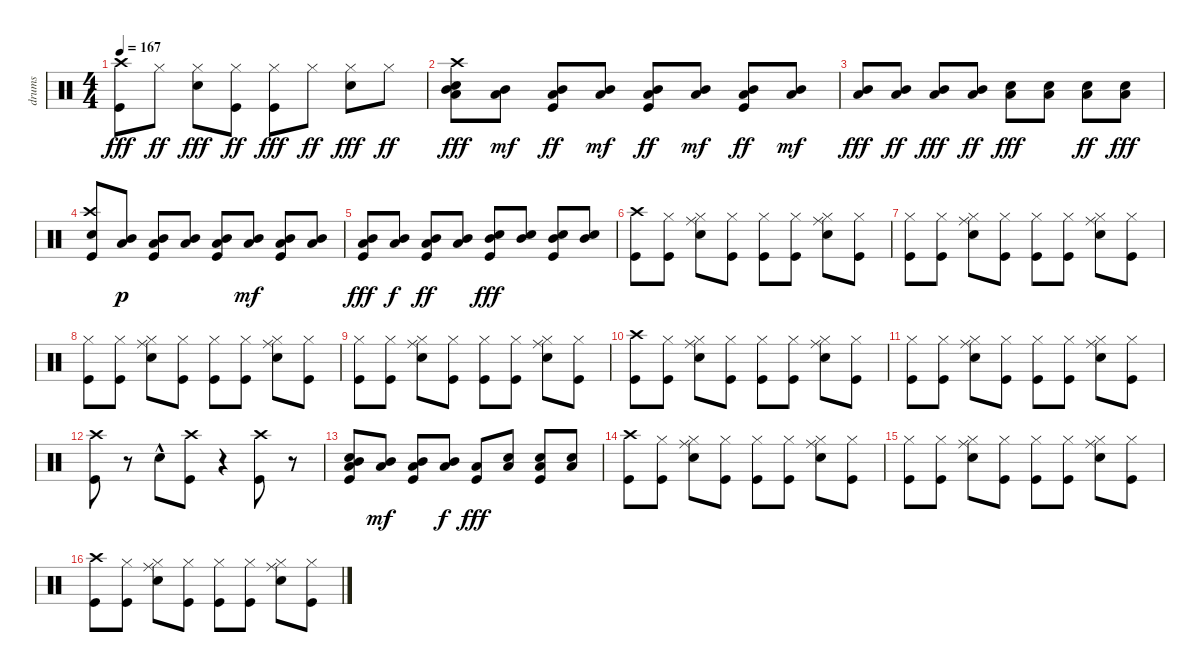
\track ("drums" "drums") {instrument percussion}
\staff {score}
\articulation defaults
\ts (4 4)
\tempo 167
\clef neutral
\ks c
("Kick (hit)" "Crash high (hit)").8{dy fff} "Hi-Hat (closed)".8{dy ff} ("Snare (hit) 2" "Hi-Hat (closed)").8{dy fff} ("Kick (hit)" "Hi-Hat (closed)").8{dy ff} ("Kick (hit)" "Hi-Hat (closed)").8{dy fff} "Hi-Hat (closed)".8{dy ff} ("Snare (hit) 2" "Hi-Hat (closed)").8{dy fff} "Hi-Hat (closed)".8{dy ff} |
("Low Tom (hit)" "Snare (hit) 2" "Mid Tom (hit)" "Crash high (hit)").8{dy fff} ("Low Tom (hit)" "Mid Tom (hit)").8{dy mf} ("Low Tom (hit)" "Kick (hit)" "Mid Tom (hit)").8{dy ff} ("Low Tom (hit)" "Mid Tom (hit)").8{dy mf} ("Low Tom (hit)" "Kick (hit)" "Mid Tom (hit)").8{dy ff} ("Low Tom (hit)" "Mid Tom (hit)").8{dy mf} ("Kick (hit)" "Low Tom (hit)" "Mid Tom (hit)").8{dy ff} ("Mid Tom (hit)" "Low Tom (hit)").8{dy mf} |
("Low Tom (hit)" "Mid Tom (hit)").8{dy fff} ("Low Tom (hit)" "Mid Tom (hit)").8{dy ff} ("Low Tom (hit)" "Mid Tom (hit)").8{dy fff} ("Low Tom (hit)" "Mid Tom (hit)").8{dy ff} ("Snare (hit) 2" "Low Tom (hit)").8{dy fff} ("Snare (hit) 2" "Low Tom (hit)").8 ("Snare (hit) 2" "Low Tom (hit)").8{dy ff} ("Low Tom (hit)" "Snare (hit) 2").8{dy fff} |
("Kick (hit)" "Snare (hit) 2" "Crash high (hit)").8 ("Low Tom (hit)" "Mid Tom (hit)").8{dy p} ("Kick (hit)" "Low Tom (hit)" "Mid Tom (hit)").8 ("Low Tom (hit)" "Mid Tom (hit)").8 ("Kick (hit)" "Low Tom (hit)" "Mid Tom (hit)").8 ("Low Tom (hit)" "Mid Tom (hit)").8{dy mf} ("Kick (hit)" "Low Tom (hit)" "Mid Tom (hit)").8 ("Mid Tom (hit)" "Low Tom (hit)").8 |
("Kick (hit)" "Low Tom (hit)" "Mid Tom (hit)").8{dy fff} ("Low Tom (hit)" "Mid Tom (hit)").8{dy f} ("Kick (hit)" "Low Tom (hit)" "Mid Tom (hit)").8{dy ff} ("Low Tom (hit)" "Mid Tom (hit)").8 ("Kick (hit)" "Snare (hit) 2" "Mid Tom (hit)").8{dy fff} ("Snare (hit) 2" "Mid Tom (hit)").8 ("Kick (hit)" "Snare (hit) 2" "Mid Tom (hit)").8 ("Mid Tom (hit)" "Snare (hit) 2").8 |
("Kick (hit)" "Crash high (hit)").8 ("Kick (hit)" "Hi-Hat (closed)").8 ("Snare (hit) 2" "Hi-Hat (closed)" "Ride (middle)").8 ("Kick (hit)" "Hi-Hat (closed)").8 ("Kick (hit)" "Hi-Hat (closed)").8 ("Kick (hit)" "Hi-Hat (closed)").8 ("Ride (middle)" "Snare (hit) 2" "Hi-Hat (closed)").8 ("Hi-Hat (closed)" "Kick (hit)").8 |
("Kick (hit)" "Hi-Hat (closed)").8 ("Kick (hit)" "Hi-Hat (closed)").8 ("Snare (hit) 2" "Hi-Hat (closed)" "Ride (middle)").8 ("Kick (hit)" "Hi-Hat (closed)").8 ("Kick (hit)" "Hi-Hat (closed)").8 ("Kick (hit)" "Hi-Hat (closed)").8 ("Ride (middle)" "Snare (hit) 2" "Hi-Hat (closed)").8 ("Hi-Hat (closed)" "Kick (hit)").8 |
("Kick (hit)" "Hi-Hat (closed)").8 ("Kick (hit)" "Hi-Hat (closed)").8 ("Snare (hit) 2" "Hi-Hat (closed)" "Ride (middle)").8 ("Kick (hit)" "Hi-Hat (closed)").8 ("Kick (hit)" "Hi-Hat (closed)").8 ("Kick (hit)" "Hi-Hat (closed)").8 ("Ride (middle)" "Snare (hit) 2" "Hi-Hat (closed)").8 ("Hi-Hat (closed)" "Kick (hit)").8 |
("Kick (hit)" "Hi-Hat (closed)").8 ("Kick (hit)" "Hi-Hat (closed)").8 ("Snare (hit) 2" "Hi-Hat (closed)" "Ride (middle)").8 ("Kick (hit)" "Hi-Hat (closed)").8 ("Kick (hit)" "Hi-Hat (closed)").8 ("Kick (hit)" "Hi-Hat (closed)").8 ("Ride (middle)" "Snare (hit) 2" "Hi-Hat (closed)").8 ("Hi-Hat (closed)" "Kick (hit)").8 |
("Kick (hit)" "Crash high (hit)").8 ("Kick (hit)" "Hi-Hat (closed)").8 ("Snare (hit) 2" "Hi-Hat (closed)" "Ride (middle)").8 ("Kick (hit)" "Hi-Hat (closed)").8 ("Kick (hit)" "Hi-Hat (closed)").8 ("Kick (hit)" "Hi-Hat (closed)").8 ("Ride (middle)" "Snare (hit) 2" "Hi-Hat (closed)").8 ("Hi-Hat (closed)" "Kick (hit)").8 |
("Kick (hit)" "Hi-Hat (closed)").8 ("Kick (hit)" "Hi-Hat (closed)").8 ("Snare (hit) 2" "Hi-Hat (closed)" "Ride (middle)").8 ("Kick (hit)" "Hi-Hat (closed)").8 ("Kick (hit)" "Hi-Hat (closed)").8 ("Kick (hit)" "Hi-Hat (closed)").8 ("Ride (middle)" "Snare (hit) 2" "Hi-Hat (closed)").8 ("Hi-Hat (closed)" "Kick (hit)").8 |
("Kick (hit)" "Crash high (hit)").8 r.8 "Snare (hit) 2"{hac}.8 ("Kick (hit)" "Crash high (hit)").8 r.4 ("Kick (hit)" "Crash high (hit)").8 r.8 |
("Kick (hit)" "Snare (hit) 2" "Low Tom (hit)" "Mid Tom (hit)").8 ("Low Tom (hit)" "Mid Tom (hit)").8{dy mf} ("Kick (hit)" "Low Tom (hit)" "Mid Tom (hit)").8 ("Low Tom (hit)" "Mid Tom (hit)").8{dy f} ("Kick (hit)" "Low Tom (hit)").8{dy fff} ("Snare (hit) 2" "Low Tom (hit)").8 ("Kick (hit)" "Snare (hit) 2" "Low Tom (hit)").8 ("Low Tom (hit)" "Snare (hit) 2").8 |
("Kick (hit)" "Crash high (hit)").8 ("Kick (hit)" "Hi-Hat (closed)").8 ("Snare (hit) 2" "Hi-Hat (closed)" "Ride (middle)").8 ("Kick (hit)" "Hi-Hat (closed)").8 ("Kick (hit)" "Hi-Hat (closed)").8 ("Kick (hit)" "Hi-Hat (closed)").8 ("Ride (middle)" "Snare (hit) 2" "Hi-Hat (closed)").8 ("Hi-Hat (closed)" "Kick (hit)").8 |
("Kick (hit)" "Hi-Hat (closed)").8 ("Kick (hit)" "Hi-Hat (closed)").8 ("Snare (hit) 2" "Hi-Hat (closed)" "Ride (middle)").8 ("Kick (hit)" "Hi-Hat (closed)").8 ("Kick (hit)" "Hi-Hat (closed)").8 ("Kick (hit)" "Hi-Hat (closed)").8 ("Ride (middle)" "Snare (hit) 2" "Hi-Hat (closed)").8 ("Hi-Hat (closed)" "Kick (hit)").8 |
("Kick (hit)" "Crash high (hit)").8 ("Kick (hit)" "Hi-Hat (closed)").8 ("Snare (hit) 2" "Hi-Hat (closed)" "Ride (middle)").8 ("Kick (hit)" "Hi-Hat (closed)").8 ("Kick (hit)" "Hi-Hat (closed)").8 ("Kick (hit)" "Hi-Hat (closed)").8 ("Ride (middle)" "Snare (hit) 2" "Hi-Hat (closed)").8 ("Hi-Hat (closed)" "Kick (hit)").8
